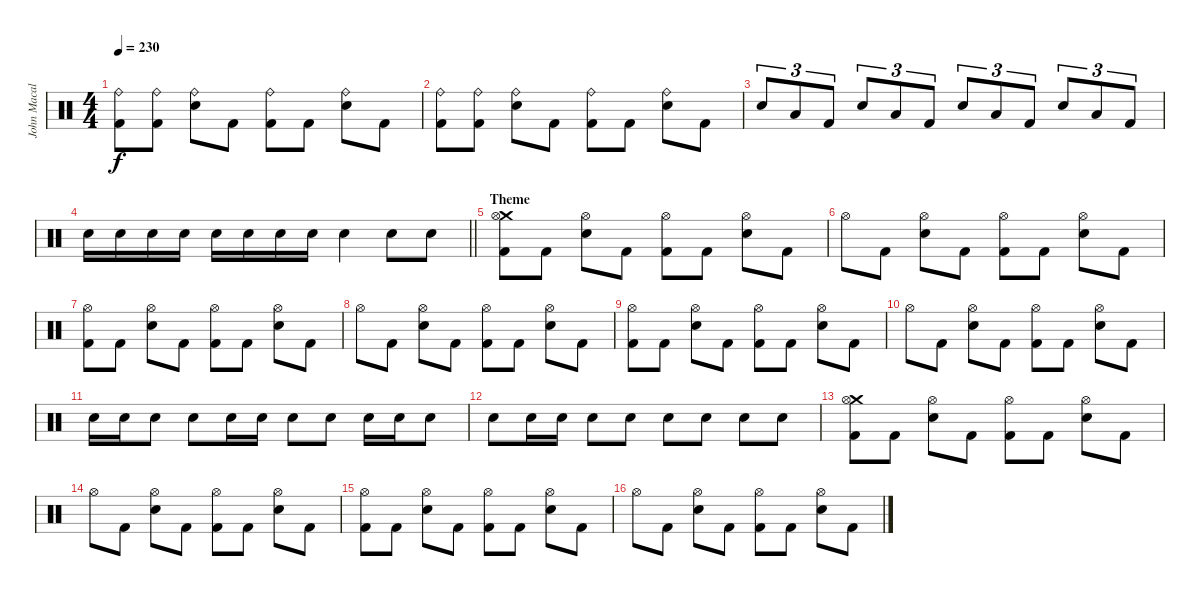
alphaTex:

\track ("John Macaluso" "John Macal") {instrument percussion}
\staff {score}
\articulation defaults
\ts (4 4)
\tempo 230
\clef neutral
\ks c
("Ride (bell)" "Kick (hit) 2").8{dy f} ("Ride (bell)" "Kick (hit) 2").8 ("Ride (bell)" "Snare (hit) 2").8 "Kick (hit) 2".8 ("Ride (bell)" "Kick (hit) 2").8 "Kick (hit) 2".8 ("Ride (bell)" "Snare (hit) 2").8 "Kick (hit) 2".8 |
("Ride (bell)" "Kick (hit) 2").8 ("Ride (bell)" "Kick (hit) 2").8 ("Ride (bell)" "Snare (hit) 2").8 "Kick (hit) 2".8 ("Ride (bell)" "Kick (hit) 2").8 "Kick (hit) 2".8 ("Ride (bell)" "Snare (hit) 2").8 "Kick (hit) 2".8 |
"Snare (hit) 2".8{tu (3 2)} "Low Tom (hit)".8{tu (3 2)} "Kick (hit) 2".8{tu (3 2)} "Snare (hit) 2".8{tu (3 2)} "Low Tom (hit)".8{tu (3 2)} "Kick (hit) 2".8{tu (3 2)} "Snare (hit) 2".8{tu (3 2)} "Low Tom (hit)".8{tu (3 2)} "Kick (hit) 2".8{tu (3 2)} "Snare (hit) 2".8{tu (3 2)} "Low Tom (hit)".8{tu (3 2)} "Kick (hit) 2".8{tu (3 2)} |
\barLineRight lightlight "Snare (hit) 2".16 "Snare (hit) 2".16 "Snare (hit) 2".16 "Snare (hit) 2".16 "Snare (hit) 2".16 "Snare (hit) 2".16 "Snare (hit) 2".16 "Snare (hit) 2".16 "Snare (hit) 2".4 "Snare (hit) 2".8 "Snare (hit) 2".8
|
\section ("" "Theme")
("Crash medium (hit)" "Hi-Hat (open)" "Kick (hit) 2").8 "Kick (hit) 2".8 ("Hi-Hat (open)" "Snare (hit) 2").8 "Kick (hit) 2".8 ("Hi-Hat (open)" "Kick (hit) 2").8 "Kick (hit) 2".8 ("Hi-Hat (open)" "Snare (hit) 2").8 "Kick (hit) 2".8 |
"Hi-Hat (open)".8 "Kick (hit) 2".8 ("Hi-Hat (open)" "Snare (hit) 2").8 "Kick (hit) 2".8 ("Hi-Hat (open)" "Kick (hit) 2").8 "Kick (hit) 2".8 ("Hi-Hat (open)" "Snare (hit) 2").8 "Kick (hit) 2".8 |
("Hi-Hat (open)" "Kick (hit) 2").8 "Kick (hit) 2".8 ("Hi-Hat (open)" "Snare (hit) 2").8 "Kick (hit) 2".8 ("Hi-Hat (open)" "Kick (hit) 2").8 "Kick (hit) 2".8 ("Hi-Hat (open)" "Snare (hit) 2").8 "Kick (hit) 2".8 |
"Hi-Hat (open)".8 "Kick (hit) 2".8 ("Hi-Hat (open)" "Snare (hit) 2").8 "Kick (hit) 2".8 ("Hi-Hat (open)" "Kick (hit) 2").8 "Kick (hit) 2".8 ("Hi-Hat (open)" "Snare (hit) 2").8 "Kick (hit) 2".8 |
("Hi-Hat (open)" "Kick (hit) 2").8 "Kick (hit) 2".8 ("Hi-Hat (open)" "Snare (hit) 2").8 "Kick (hit) 2".8 ("Hi-Hat (open)" "Kick (hit) 2").8 "Kick (hit) 2".8 ("Hi-Hat (open)" "Snare (hit) 2").8 "Kick (hit) 2".8 |
"Hi-Hat (open)".8 "Kick (hit) 2".8 ("Hi-Hat (open)" "Snare (hit) 2").8 "Kick (hit) 2".8 ("Hi-Hat (open)" "Kick (hit) 2").8 "Kick (hit) 2".8 ("Hi-Hat (open)" "Snare (hit) 2").8 "Kick (hit) 2".8 |
"Snare (hit) 2".16 "Snare (hit) 2".16 "Snare (hit) 2".8 "Snare (hit) 2".8 "Snare (hit) 2".16 "Snare (hit) 2".16 "Snare (hit) 2".8 "Snare (hit) 2".8 "Snare (hit) 2".16 "Snare (hit) 2".16 "Snare (hit) 2".8 |
"Snare (hit) 2".8 "Snare (hit) 2".16 "Snare (hit) 2".16 "Snare (hit) 2".8 "Snare (hit) 2".8 "Snare (hit) 2".8 "Snare (hit) 2".8 "Snare (hit) 2".8 "Snare (hit) 2".8 |
("Crash medium (hit)" "Hi-Hat (open)" "Kick (hit) 2").8 "Kick (hit) 2".8 ("Hi-Hat (open)" "Snare (hit) 2").8 "Kick (hit) 2".8 ("Hi-Hat (open)" "Kick (hit) 2").8 "Kick (hit) 2".8 ("Hi-Hat (open)" "Snare (hit) 2").8 "Kick (hit) 2".8 |
"Hi-Hat (open)".8 "Kick (hit) 2".8 ("Hi-Hat (open)" "Snare (hit) 2").8 "Kick (hit) 2".8 ("Hi-Hat (open)" "Kick (hit) 2").8 "Kick (hit) 2".8 ("Hi-Hat (open)" "Snare (hit) 2").8 "Kick (hit) 2".8 |
("Hi-Hat (open)" "Kick (hit) 2").8 "Kick (hit) 2".8 ("Hi-Hat (open)" "Snare (hit) 2").8 "Kick (hit) 2".8 ("Hi-Hat (open)" "Kick (hit) 2").8 "Kick (hit) 2".8 ("Hi-Hat (open)" "Snare (hit) 2").8 "Kick (hit) 2".8 |
"Hi-Hat (open)".8 "Kick (hit) 2".8 ("Hi-Hat (open)" "Snare (hit) 2").8 "Kick (hit) 2".8 ("Hi-Hat (open)" "Kick (hit) 2").8 "Kick (hit) 2".8 ("Hi-Hat (open)" "Snare (hit) 2").8 "Kick (hit) 2".8
